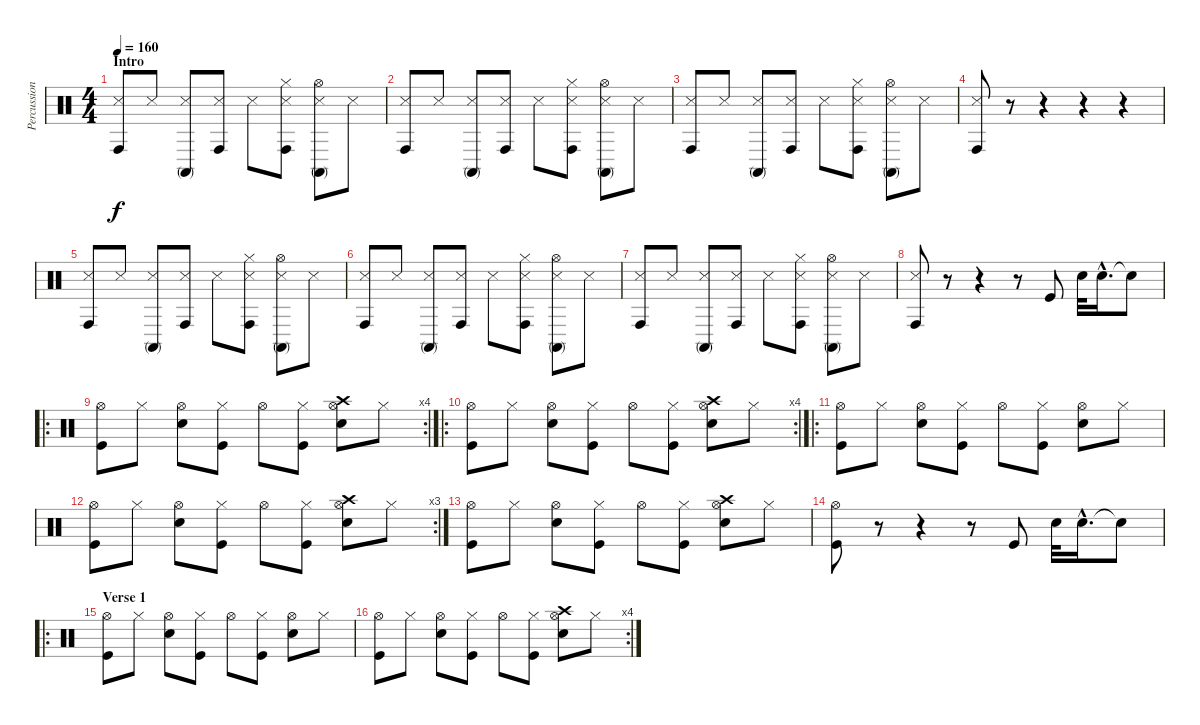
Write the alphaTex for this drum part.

\track ("Percussions" "Percussion") {instrument percussion}
\staff {score}
\articulation defaults
\ts (4 4)
\section ("" "Intro")
\tempo 160
\clef neutral
\ks c
("Snare (side stick) 3" "Conga high (hit)").8{dy f} "Snare (side stick) 3".8 ("Snare (side stick) 3" "Conga high (mute)").8 ("Snare (side stick) 3" "Conga high (hit)").8 "Snare (side stick) 3".8 ("Snare (side stick) 3" "Conga high (hit)" "Hi-Hat (closed)").8 ("Snare (side stick) 3" "Conga high (mute)" "Hi-Hat (open)").8 "Snare (side stick) 3".8 |
("Snare (side stick) 3" "Conga high (hit)").8 "Snare (side stick) 3".8 ("Snare (side stick) 3" "Conga high (mute)").8 ("Snare (side stick) 3" "Conga high (hit)").8 "Snare (side stick) 3".8 ("Snare (side stick) 3" "Conga high (hit)" "Hi-Hat (closed)").8 ("Snare (side stick) 3" "Conga high (mute)" "Hi-Hat (open)").8 "Snare (side stick) 3".8 |
("Snare (side stick) 3" "Conga high (hit)").8 "Snare (side stick) 3".8 ("Snare (side stick) 3" "Conga high (mute)").8 ("Snare (side stick) 3" "Conga high (hit)").8 "Snare (side stick) 3".8 ("Snare (side stick) 3" "Conga high (hit)" "Hi-Hat (closed)").8 ("Snare (side stick) 3" "Conga high (mute)" "Hi-Hat (open)").8 "Snare (side stick) 3".8 |
("Snare (side stick) 3" "Conga high (hit)").8 r.8 r.4 r.4 r.4 |
("Snare (side stick) 3" "Conga high (hit)").8 "Snare (side stick) 3".8 ("Snare (side stick) 3" "Conga high (mute)").8 ("Snare (side stick) 3" "Conga high (hit)").8 "Snare (side stick) 3".8 ("Snare (side stick) 3" "Conga high (hit)" "Hi-Hat (closed)").8 ("Snare (side stick) 3" "Conga high (mute)" "Hi-Hat (open)").8 "Snare (side stick) 3".8 |
("Snare (side stick) 3" "Conga high (hit)").8 "Snare (side stick) 3".8 ("Snare (side stick) 3" "Conga high (mute)").8 ("Snare (side stick) 3" "Conga high (hit)").8 "Snare (side stick) 3".8 ("Snare (side stick) 3" "Conga high (hit)" "Hi-Hat (closed)").8 ("Snare (side stick) 3" "Conga high (mute)" "Hi-Hat (open)").8 "Snare (side stick) 3".8 |
("Snare (side stick) 3" "Conga high (hit)").8 "Snare (side stick) 3".8 ("Snare (side stick) 3" "Conga high (mute)").8 ("Snare (side stick) 3" "Conga high (hit)").8 "Snare (side stick) 3".8 ("Snare (side stick) 3" "Conga high (hit)" "Hi-Hat (closed)").8 ("Snare (side stick) 3" "Conga high (mute)" "Hi-Hat (open)").8 "Snare (side stick) 3".8 |
("Snare (side stick) 3" "Conga high (hit)").8 r.8 r.4 r.8 "Kick (hit)".8 "Snare (hit) 2".32 "Snare (hit) 2"{hac}.16{d} "Snare (hit)"{t}.8 |
\ro
\rc 4
("Hi-Hat (open)" "Kick (hit)").8 "Hi-Hat (closed)".8 ("Hi-Hat (open)" "Snare (hit) 2").8 ("Hi-Hat (closed)" "Kick (hit)").8 "Hi-Hat (open)".8 ("Hi-Hat (closed)" "Kick (hit)").8 ("Hi-Hat (open)" "Snare (hit) 2" "Crash high (hit)").8 "Hi-Hat (closed)".8 |
\ro
\rc 4
("Hi-Hat (open)" "Kick (hit)").8 "Hi-Hat (closed)".8 ("Hi-Hat (open)" "Snare (hit) 2").8 ("Hi-Hat (closed)" "Kick (hit)").8 "Hi-Hat (open)".8 ("Hi-Hat (closed)" "Kick (hit)").8 ("Hi-Hat (open)" "Snare (hit) 2" "Crash high (hit)").8 "Hi-Hat (closed)".8 |
\ro
("Hi-Hat (open)" "Kick (hit)").8 "Hi-Hat (closed)".8 ("Hi-Hat (open)" "Snare (hit) 2").8 ("Hi-Hat (closed)" "Kick (hit)").8 "Hi-Hat (open)".8 ("Hi-Hat (closed)" "Kick (hit)").8 ("Hi-Hat (open)" "Snare (hit) 2").8 "Hi-Hat (closed)".8 |
\rc 3
("Hi-Hat (open)" "Kick (hit)").8 "Hi-Hat (closed)".8 ("Hi-Hat (open)" "Snare (hit) 2").8 ("Hi-Hat (closed)" "Kick (hit)").8 "Hi-Hat (open)".8 ("Hi-Hat (closed)" "Kick (hit)").8 ("Hi-Hat (open)" "Snare (hit) 2" "Crash high (hit)").8 "Hi-Hat (closed)".8 |
("Hi-Hat (open)" "Kick (hit)").8 "Hi-Hat (closed)".8 ("Hi-Hat (open)" "Snare (hit) 2").8 ("Hi-Hat (closed)" "Kick (hit)").8 "Hi-Hat (open)".8 ("Hi-Hat (closed)" "Kick (hit)").8 ("Hi-Hat (open)" "Snare (hit) 2" "Crash high (hit)").8 "Hi-Hat (closed)".8 |
("Hi-Hat (open)" "Kick (hit)").8 r.8 r.4 r.8 "Kick (hit)".8 "Snare (hit) 2".32 "Snare (hit) 2"{hac}.16{d} "Snare (hit)"{t}.8 |
\ro
\section ("" "Verse 1")
("Hi-Hat (open)" "Kick (hit)").8 "Hi-Hat (closed)".8 ("Hi-Hat (open)" "Snare (hit) 2").8 ("Hi-Hat (closed)" "Kick (hit)").8 "Hi-Hat (open)".8 ("Hi-Hat (closed)" "Kick (hit)").8 ("Hi-Hat (open)" "Snare (hit) 2").8 "Hi-Hat (closed)".8 |
\rc 4
("Hi-Hat (open)" "Kick (hit)").8 "Hi-Hat (closed)".8 ("Hi-Hat (open)" "Snare (hit) 2").8 ("Hi-Hat (closed)" "Kick (hit)").8 "Hi-Hat (open)".8 ("Hi-Hat (closed)" "Kick (hit)").8 ("Hi-Hat (open)" "Snare (hit) 2" "Crash high (hit)").8 "Hi-Hat (closed)".8
